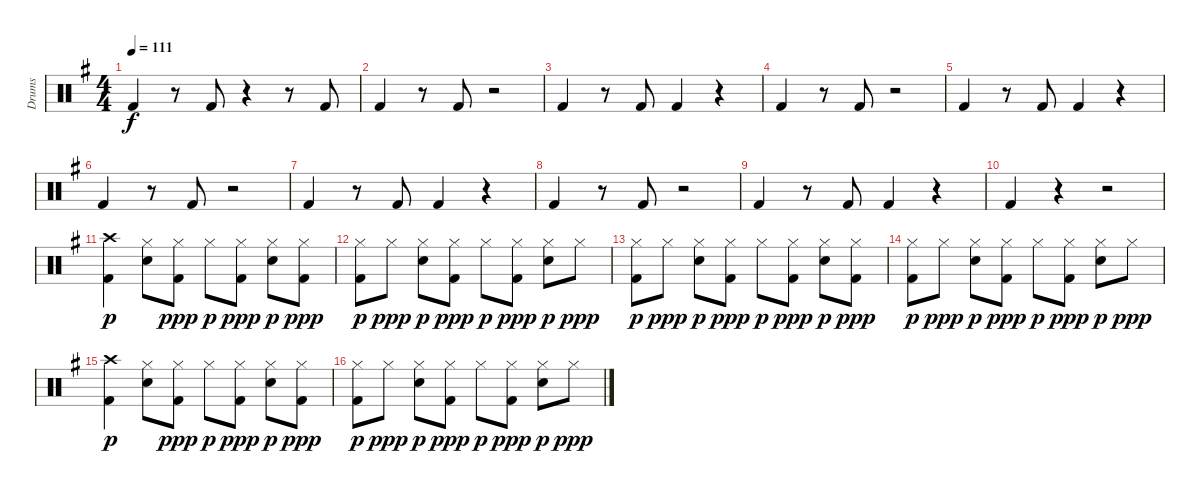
\track ("Drums" "Drums") {instrument percussion}
\staff {score}
\articulation defaults
\ts (4 4)
\tempo 111
\clef neutral
\ks g "Kick (hit) 2".4{dy f}
r.8 "Kick (hit) 2".8 r.4 r.8 "Kick (hit) 2".8 |
"Kick (hit) 2".4 r.8 "Kick (hit) 2".8 r.2 |
"Kick (hit) 2".4 r.8 "Kick (hit) 2".8 "Kick (hit) 2".4 r.4 |
"Kick (hit) 2".4 r.8 "Kick (hit) 2".8 r.2 |
"Kick (hit) 2".4 r.8 "Kick (hit) 2".8 "Kick (hit) 2".4 r.4 |
"Kick (hit) 2".4 r.8 "Kick (hit) 2".8 r.2 |
"Kick (hit) 2".4 r.8 "Kick (hit) 2".8 "Kick (hit) 2".4 r.4 |
"Kick (hit) 2".4 r.8 "Kick (hit) 2".8 r.2 |
"Kick (hit) 2".4 r.8 "Kick (hit) 2".8 "Kick (hit) 2".4 r.4 |
"Kick (hit) 2".4 r.4 r.2 |
("Crash high (hit)" "Kick (hit) 2").4{dy p} ("Hi-Hat (closed)" "Electric Snare (hit)").8 ("Kick (hit) 2" "Hi-Hat (closed)").8{dy ppp} "Hi-Hat (closed)".8{dy p} ("Kick (hit) 2" "Hi-Hat (closed)").8{dy ppp} ("Hi-Hat (closed)" "Electric Snare (hit)").8{dy p} ("Kick (hit) 2" "Hi-Hat (closed)").8{dy ppp} |
("Hi-Hat (closed)" "Kick (hit) 2").8{dy p} "Hi-Hat (closed)".8{dy ppp} ("Hi-Hat (closed)" "Electric Snare (hit)").8{dy p} ("Kick (hit) 2" "Hi-Hat (closed)").8{dy ppp} "Hi-Hat (closed)".8{dy p} ("Kick (hit) 2" "Hi-Hat (closed)").8{dy ppp} ("Hi-Hat (closed)" "Electric Snare (hit)").8{dy p} "Hi-Hat (closed)".8{dy ppp} |
("Hi-Hat (closed)" "Kick (hit) 2").8{dy p} "Hi-Hat (closed)".8{dy ppp} ("Hi-Hat (closed)" "Electric Snare (hit)").8{dy p} ("Kick (hit) 2" "Hi-Hat (closed)").8{dy ppp} "Hi-Hat (closed)".8{dy p} ("Kick (hit) 2" "Hi-Hat (closed)").8{dy ppp} ("Hi-Hat (closed)" "Electric Snare (hit)").8{dy p} ("Kick (hit) 2" "Hi-Hat (closed)").8{dy ppp} |
("Hi-Hat (closed)" "Kick (hit) 2").8{dy p} "Hi-Hat (closed)".8{dy ppp} ("Hi-Hat (closed)" "Electric Snare (hit)").8{dy p} ("Kick (hit) 2" "Hi-Hat (closed)").8{dy ppp} "Hi-Hat (closed)".8{dy p} ("Kick (hit) 2" "Hi-Hat (closed)").8{dy ppp} ("Hi-Hat (closed)" "Electric Snare (hit)").8{dy p} "Hi-Hat (closed)".8{dy ppp} |
("Crash high (hit)" "Kick (hit) 2").4{dy p} ("Hi-Hat (closed)" "Electric Snare (hit)").8 ("Kick (hit) 2" "Hi-Hat (closed)").8{dy ppp} "Hi-Hat (closed)".8{dy p} ("Kick (hit) 2" "Hi-Hat (closed)").8{dy ppp} ("Hi-Hat (closed)" "Electric Snare (hit)").8{dy p} ("Kick (hit) 2" "Hi-Hat (closed)").8{dy ppp} |
("Hi-Hat (closed)" "Kick (hit) 2").8{dy p} "Hi-Hat (closed)".8{dy ppp} ("Hi-Hat (closed)" "Electric Snare (hit)").8{dy p} ("Kick (hit) 2" "Hi-Hat (closed)").8{dy ppp} "Hi-Hat (closed)".8{dy p} ("Kick (hit) 2" "Hi-Hat (closed)").8{dy ppp} ("Hi-Hat (closed)" "Electric Snare (hit)").8{dy p} "Hi-Hat (closed)".8{dy ppp}
